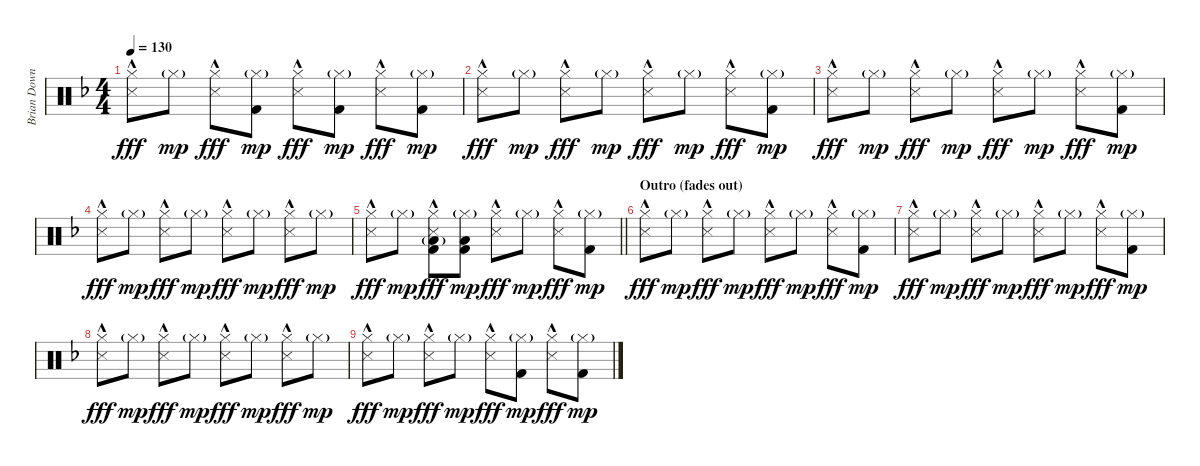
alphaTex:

\track ("Brian Downey" "Brian Down") {instrument percussion}
\staff {score}
\articulation defaults
\ts (4 4)
\tempo 130
\clef neutral
\ks dminor
("Hi-Hat (closed)" "Metronome (hit)"{hac}).8{dy fff} "Hi-Hat (closed)"{g}.8{dy mp} ("Hi-Hat (closed)" "Metronome (hit)"{hac}).8{dy fff} ("Hi-Hat (closed)"{g} "Kick (hit) 2").8{dy mp} ("Hi-Hat (closed)" "Metronome (hit)"{hac}).8{dy fff} ("Hi-Hat (closed)"{g} "Kick (hit) 2").8{dy mp} ("Hi-Hat (closed)" "Metronome (hit)"{hac}).8{dy fff} ("Hi-Hat (closed)"{g} "Kick (hit) 2").8{dy mp} |
("Hi-Hat (closed)" "Metronome (hit)"{hac}).8{dy fff} "Hi-Hat (closed)"{g}.8{dy mp} ("Hi-Hat (closed)" "Metronome (hit)"{hac}).8{dy fff} "Hi-Hat (closed)"{g}.8{dy mp} ("Hi-Hat (closed)" "Metronome (hit)"{hac}).8{dy fff} "Hi-Hat (closed)"{g}.8{dy mp} ("Hi-Hat (closed)" "Metronome (hit)"{hac}).8{dy fff} ("Hi-Hat (closed)"{g} "Kick (hit) 2").8{dy mp} |
("Hi-Hat (closed)" "Metronome (hit)"{hac}).8{dy fff} "Hi-Hat (closed)"{g}.8{dy mp} ("Hi-Hat (closed)" "Metronome (hit)"{hac}).8{dy fff} "Hi-Hat (closed)"{g}.8{dy mp} ("Hi-Hat (closed)" "Metronome (hit)"{hac}).8{dy fff} "Hi-Hat (closed)"{g}.8{dy mp} ("Hi-Hat (closed)" "Metronome (hit)"{hac}).8{dy fff} ("Hi-Hat (closed)"{g} "Kick (hit) 2").8{dy mp} |
("Hi-Hat (closed)" "Metronome (hit)"{hac}).8{dy fff} "Hi-Hat (closed)"{g}.8{dy mp} ("Hi-Hat (closed)" "Metronome (hit)"{hac}).8{dy fff} "Hi-Hat (closed)"{g}.8{dy mp} ("Hi-Hat (closed)" "Metronome (hit)"{hac}).8{dy fff} "Hi-Hat (closed)"{g}.8{dy mp} ("Hi-Hat (closed)" "Metronome (hit)"{hac}).8{dy fff} "Hi-Hat (closed)"{g}.8{dy mp} |
\barLineRight lightlight
("Hi-Hat (closed)" "Metronome (hit)"{hac}).8{dy fff} "Hi-Hat (closed)"{g}.8{dy mp} ("Hi-Hat (closed)" "Low Tom (hit)"{g} "Metronome (hit)"{hac} "Kick (hit) 2").8{dy fff} ("Hi-Hat (closed)"{g} "Low Tom (hit)" "Kick (hit) 2").8{dy mp} ("Hi-Hat (closed)" "Metronome (hit)"{hac}).8{dy fff} "Hi-Hat (closed)"{g}.8{dy mp} ("Hi-Hat (closed)" "Metronome (hit)"{hac}).8{dy fff} ("Hi-Hat (closed)"{g} "Kick (hit) 2").8{dy mp} |
\section ("" "Outro (fades out)")
("Hi-Hat (closed)" "Metronome (hit)"{hac}).8{dy fff volume 0} "Hi-Hat (closed)"{g}.8{dy mp} ("Hi-Hat (closed)" "Metronome (hit)"{hac}).8{dy fff} "Hi-Hat (closed)"{g}.8{dy mp} ("Hi-Hat (closed)" "Metronome (hit)"{hac}).8{dy fff} "Hi-Hat (closed)"{g}.8{dy mp} ("Hi-Hat (closed)" "Metronome (hit)"{hac}).8{dy fff} ("Hi-Hat (closed)"{g} "Kick (hit) 2").8{dy mp} |
("Hi-Hat (closed)" "Metronome (hit)"{hac}).8{dy fff} "Hi-Hat (closed)"{g}.8{dy mp} ("Hi-Hat (closed)" "Metronome (hit)"{hac}).8{dy fff} "Hi-Hat (closed)"{g}.8{dy mp} ("Hi-Hat (closed)" "Metronome (hit)"{hac}).8{dy fff} "Hi-Hat (closed)"{g}.8{dy mp} ("Hi-Hat (closed)" "Metronome (hit)"{hac}).8{dy fff} ("Hi-Hat (closed)"{g} "Kick (hit) 2").8{dy mp} |
("Hi-Hat (closed)" "Metronome (hit)"{hac}).8{dy fff} "Hi-Hat (closed)"{g}.8{dy mp} ("Hi-Hat (closed)" "Metronome (hit)"{hac}).8{dy fff} "Hi-Hat (closed)"{g}.8{dy mp} ("Hi-Hat (closed)" "Metronome (hit)"{hac}).8{dy fff} "Hi-Hat (closed)"{g}.8{dy mp} ("Hi-Hat (closed)" "Metronome (hit)"{hac}).8{dy fff} "Hi-Hat (closed)"{g}.8{dy mp} |
("Hi-Hat (closed)" "Metronome (hit)"{hac}).8{dy fff} "Hi-Hat (closed)"{g}.8{dy mp} ("Hi-Hat (closed)" "Metronome (hit)"{hac}).8{dy fff} "Hi-Hat (closed)"{g}.8{dy mp} ("Hi-Hat (closed)" "Metronome (hit)"{hac}).8{dy fff} ("Hi-Hat (closed)"{g} "Kick (hit) 2").8{dy mp} ("Hi-Hat (closed)" "Metronome (hit)"{hac}).8{dy fff} ("Hi-Hat (closed)"{g} "Kick (hit) 2").8{dy mp}
